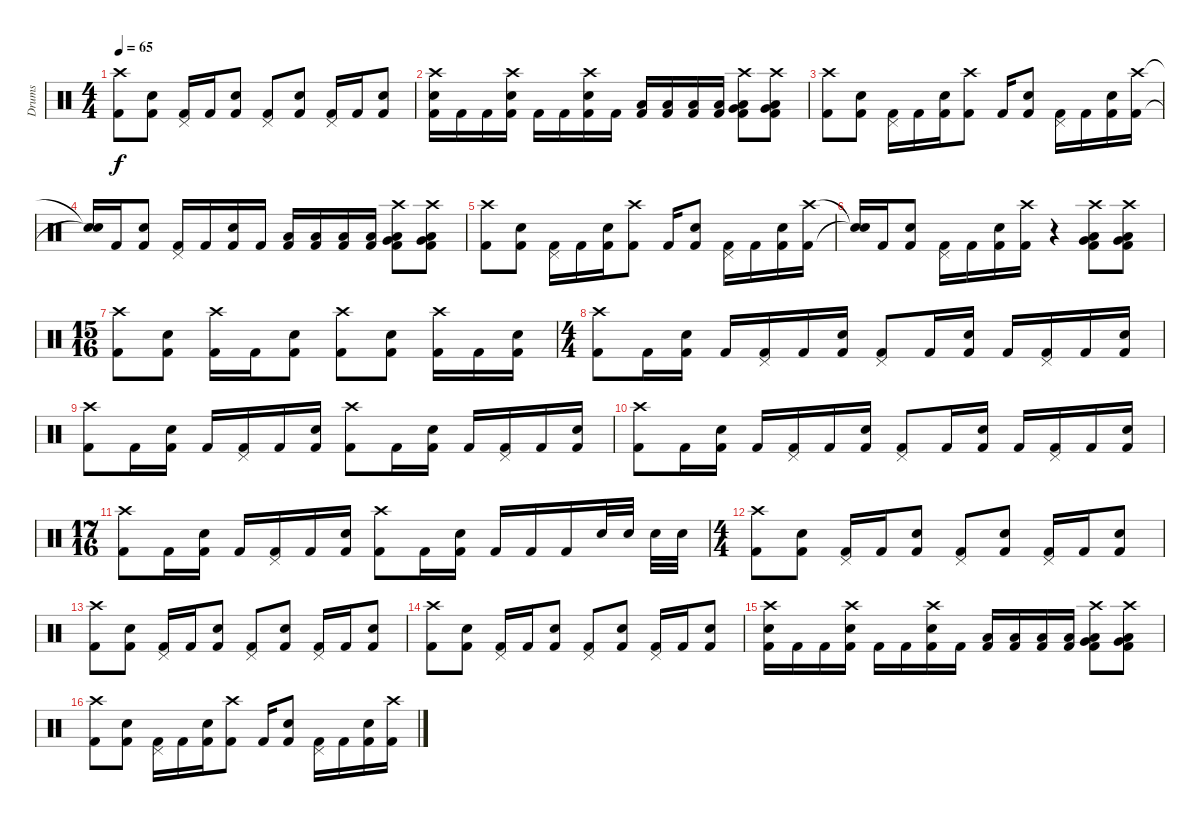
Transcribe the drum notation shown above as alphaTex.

\track ("Drums" "Drums") {instrument percussion}
\staff {score}
\articulation defaults
\ts (4 4)
\tempo 65
\clef neutral
\ks c
("Crash high (hit)" "Kick (hit) 2").8{dy f} ("Electric Snare (hit)" "Kick (hit) 2").8 ("Pedal Hi-Hat (hit)" "Kick (hit) 2").16 "Kick (hit) 2".16 ("Electric Snare (hit)" "Kick (hit) 2").8 ("Pedal Hi-Hat (hit)" "Kick (hit) 2").8 ("Electric Snare (hit)" "Kick (hit) 2").8 ("Pedal Hi-Hat (hit)" "Kick (hit) 2").16 "Kick (hit) 2".16 ("Electric Snare (hit)" "Kick (hit) 2").8 |
("Crash high (hit)" "Electric Snare (hit)" "Kick (hit) 2").16 "Kick (hit) 2".16 "Kick (hit) 2".16 ("Crash high (hit)" "Electric Snare (hit)" "Kick (hit) 2").16 "Kick (hit) 2".16 "Kick (hit) 2".16 ("Crash high (hit)" "Electric Snare (hit)" "Kick (hit) 2").16 "Kick (hit) 2".16 ("Low Floor Tom (hit)" "Kick (hit) 2").16 ("Low Floor Tom (hit)" "Kick (hit) 2").16 ("Low Floor Tom (hit)" "Kick (hit) 2").16 ("Low Floor Tom (hit)" "Kick (hit) 2").16 ("Crash high (hit)" "Very Low Tom (hit)" "Low Floor Tom (hit)" "Kick (hit) 2").8 ("Crash high (hit)" "Very Low Tom (hit)" "Low Floor Tom (hit)" "Kick (hit) 2").8 |
("Crash high (hit)" "Kick (hit) 2").8 ("Electric Snare (hit)" "Kick (hit) 2").8 ("Pedal Hi-Hat (hit)" "Kick (hit) 2").16 "Kick (hit) 2".16 ("Electric Snare (hit)" "Kick (hit) 2").16 ("Crash high (hit)" "Kick (hit) 2").8 "Kick (hit) 2".16 ("Electric Snare (hit)" "Kick (hit) 2").8 ("Pedal Hi-Hat (hit)" "Kick (hit) 2").16 "Kick (hit) 2".16 ("Electric Snare (hit)" "Kick (hit) 2").16 ("Crash high (hit)" "Kick (hit) 2").16 |
("Snare (hit)"{t} "Snare (hit)"{t}).16 "Kick (hit) 2".16 ("Electric Snare (hit)" "Kick (hit) 2").8 ("Pedal Hi-Hat (hit)" "Kick (hit) 2").16 "Kick (hit) 2".16 ("Electric Snare (hit)" "Kick (hit) 2").16 "Kick (hit) 2".16 ("Low Floor Tom (hit)" "Kick (hit) 2").16 ("Low Floor Tom (hit)" "Kick (hit) 2").16 ("Low Floor Tom (hit)" "Kick (hit) 2").16 ("Low Floor Tom (hit)" "Kick (hit) 2").16 ("Crash high (hit)" "Very Low Tom (hit)" "Low Floor Tom (hit)" "Kick (hit) 2").8 ("Crash high (hit)" "Very Low Tom (hit)" "Low Floor Tom (hit)" "Kick (hit) 2").8 |
("Crash high (hit)" "Kick (hit) 2").8 ("Electric Snare (hit)" "Kick (hit) 2").8 ("Pedal Hi-Hat (hit)" "Kick (hit) 2").16 "Kick (hit) 2".16 ("Electric Snare (hit)" "Kick (hit) 2").16 ("Crash high (hit)" "Kick (hit) 2").8 "Kick (hit) 2".16 ("Electric Snare (hit)" "Kick (hit) 2").8 ("Pedal Hi-Hat (hit)" "Kick (hit) 2").16 "Kick (hit) 2".16 ("Electric Snare (hit)" "Kick (hit) 2").16 ("Crash high (hit)" "Kick (hit) 2").16 |
("Snare (hit)"{t} "Snare (hit)"{t}).16 "Kick (hit) 2".16 ("Electric Snare (hit)" "Kick (hit) 2").8 ("Pedal Hi-Hat (hit)" "Kick (hit) 2").16 "Kick (hit) 2".16 ("Electric Snare (hit)" "Kick (hit) 2").16 ("Crash high (hit)" "Kick (hit) 2").16 r.4 ("Crash high (hit)" "Very Low Tom (hit)" "Low Floor Tom (hit)" "Kick (hit) 2").8 ("Crash high (hit)" "Very Low Tom (hit)" "Low Floor Tom (hit)" "Kick (hit) 2").8 |
\ts (15 16)
("Crash high (hit)" "Kick (hit) 2").8 ("Electric Snare (hit)" "Kick (hit) 2").8 ("Crash high (hit)" "Kick (hit) 2").16 "Kick (hit) 2".16 ("Electric Snare (hit)" "Kick (hit) 2").8 ("Crash high (hit)" "Kick (hit) 2").8 ("Electric Snare (hit)" "Kick (hit) 2").8 ("Crash high (hit)" "Kick (hit) 2").16 "Kick (hit) 2".16 ("Electric Snare (hit)" "Kick (hit) 2").16 |
\ts (4 4)
("Crash high (hit)" "Kick (hit) 2").8 "Kick (hit) 2".16 ("Electric Snare (hit)" "Kick (hit) 2").16 "Kick (hit) 2".16 ("Pedal Hi-Hat (hit)" "Kick (hit) 2").16 "Kick (hit) 2".16 ("Electric Snare (hit)" "Kick (hit) 2").16 ("Pedal Hi-Hat (hit)" "Kick (hit) 2").8 "Kick (hit) 2".16 ("Electric Snare (hit)" "Kick (hit) 2").16 "Kick (hit) 2".16 ("Pedal Hi-Hat (hit)" "Kick (hit) 2").16 "Kick (hit) 2".16 ("Electric Snare (hit)" "Kick (hit) 2").16 |
("Crash high (hit)" "Kick (hit) 2").8 "Kick (hit) 2".16 ("Electric Snare (hit)" "Kick (hit) 2").16 "Kick (hit) 2".16 ("Pedal Hi-Hat (hit)" "Kick (hit) 2").16 "Kick (hit) 2".16 ("Electric Snare (hit)" "Kick (hit) 2").16 ("Crash high (hit)" "Kick (hit) 2").8 "Kick (hit) 2".16 ("Electric Snare (hit)" "Kick (hit) 2").16 "Kick (hit) 2".16 ("Pedal Hi-Hat (hit)" "Kick (hit) 2").16 "Kick (hit) 2".16 ("Electric Snare (hit)" "Kick (hit) 2").16 |
("Crash high (hit)" "Kick (hit) 2").8 "Kick (hit) 2".16 ("Electric Snare (hit)" "Kick (hit) 2").16 "Kick (hit) 2".16 ("Pedal Hi-Hat (hit)" "Kick (hit) 2").16 "Kick (hit) 2".16 ("Electric Snare (hit)" "Kick (hit) 2").16 ("Pedal Hi-Hat (hit)" "Kick (hit) 2").8 "Kick (hit) 2".16 ("Electric Snare (hit)" "Kick (hit) 2").16 "Kick (hit) 2".16 ("Pedal Hi-Hat (hit)" "Kick (hit) 2").16 "Kick (hit) 2".16 ("Electric Snare (hit)" "Kick (hit) 2").16 |
\ts (17 16)
("Crash high (hit)" "Kick (hit) 2").8 "Kick (hit) 2".16 ("Electric Snare (hit)" "Kick (hit) 2").16 "Kick (hit) 2".16 ("Pedal Hi-Hat (hit)" "Kick (hit) 2").16 "Kick (hit) 2".16 ("Electric Snare (hit)" "Kick (hit) 2").16 ("Crash high (hit)" "Kick (hit) 2").8 "Kick (hit) 2".16 ("Electric Snare (hit)" "Kick (hit) 2").16 "Kick (hit) 2".16 "Kick (hit) 2".16 "Kick (hit) 2".16 "Electric Snare (hit)".32 "Electric Snare (hit)".32 "Electric Snare (hit)".32 "Electric Snare (hit)".32 |
\ts (4 4)
("Crash high (hit)" "Kick (hit) 2").8 ("Electric Snare (hit)" "Kick (hit) 2").8 ("Pedal Hi-Hat (hit)" "Kick (hit) 2").16 "Kick (hit) 2".16 ("Electric Snare (hit)" "Kick (hit) 2").8 ("Pedal Hi-Hat (hit)" "Kick (hit) 2").8 ("Electric Snare (hit)" "Kick (hit) 2").8 ("Pedal Hi-Hat (hit)" "Kick (hit) 2").16 "Kick (hit) 2".16 ("Electric Snare (hit)" "Kick (hit) 2").8 |
("Crash high (hit)" "Kick (hit) 2").8 ("Electric Snare (hit)" "Kick (hit) 2").8 ("Pedal Hi-Hat (hit)" "Kick (hit) 2").16 "Kick (hit) 2".16 ("Electric Snare (hit)" "Kick (hit) 2").8 ("Pedal Hi-Hat (hit)" "Kick (hit) 2").8 ("Electric Snare (hit)" "Kick (hit) 2").8 ("Pedal Hi-Hat (hit)" "Kick (hit) 2").16 "Kick (hit) 2".16 ("Electric Snare (hit)" "Kick (hit) 2").8 |
("Crash high (hit)" "Kick (hit) 2").8 ("Electric Snare (hit)" "Kick (hit) 2").8 ("Pedal Hi-Hat (hit)" "Kick (hit) 2").16 "Kick (hit) 2".16 ("Electric Snare (hit)" "Kick (hit) 2").8 ("Pedal Hi-Hat (hit)" "Kick (hit) 2").8 ("Electric Snare (hit)" "Kick (hit) 2").8 ("Pedal Hi-Hat (hit)" "Kick (hit) 2").16 "Kick (hit) 2".16 ("Electric Snare (hit)" "Kick (hit) 2").8 |
("Crash high (hit)" "Electric Snare (hit)" "Kick (hit) 2").16 "Kick (hit) 2".16 "Kick (hit) 2".16 ("Crash high (hit)" "Electric Snare (hit)" "Kick (hit) 2").16 "Kick (hit) 2".16 "Kick (hit) 2".16 ("Crash high (hit)" "Electric Snare (hit)" "Kick (hit) 2").16 "Kick (hit) 2".16 ("Low Floor Tom (hit)" "Kick (hit) 2").16 ("Low Floor Tom (hit)" "Kick (hit) 2").16 ("Low Floor Tom (hit)" "Kick (hit) 2").16 ("Low Floor Tom (hit)" "Kick (hit) 2").16 ("Crash high (hit)" "Very Low Tom (hit)" "Low Floor Tom (hit)" "Kick (hit) 2").8 ("Crash high (hit)" "Very Low Tom (hit)" "Low Floor Tom (hit)" "Kick (hit) 2").8 |
("Crash high (hit)" "Kick (hit) 2").8 ("Electric Snare (hit)" "Kick (hit) 2").8 ("Pedal Hi-Hat (hit)" "Kick (hit) 2").16 "Kick (hit) 2".16 ("Electric Snare (hit)" "Kick (hit) 2").16 ("Crash high (hit)" "Kick (hit) 2").8 "Kick (hit) 2".16 ("Electric Snare (hit)" "Kick (hit) 2").8 ("Pedal Hi-Hat (hit)" "Kick (hit) 2").16 "Kick (hit) 2".16 ("Electric Snare (hit)" "Kick (hit) 2").16 ("Crash high (hit)" "Kick (hit) 2").16
